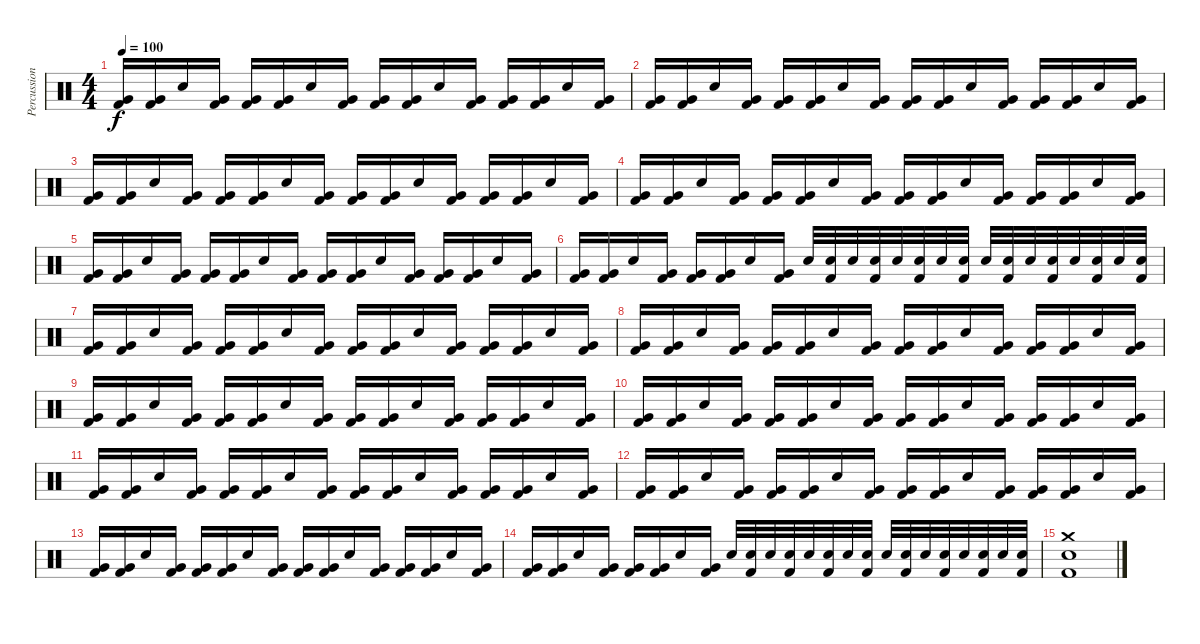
\track ("Percussion" "Percussion") {instrument percussion}
\staff {score}
\articulation defaults
\ts (4 4)
\tempo 100
\clef neutral
\ks c
("Very Low Tom (hit)" "Kick (hit) 2").16{dy f} ("Very Low Tom (hit)" "Kick (hit) 2").16 "Electric Snare (hit)".16 ("Very Low Tom (hit)" "Kick (hit) 2").16 ("Very Low Tom (hit)" "Kick (hit) 2").16 ("Very Low Tom (hit)" "Kick (hit) 2").16 "Electric Snare (hit)".16 ("Very Low Tom (hit)" "Kick (hit) 2").16 ("Very Low Tom (hit)" "Kick (hit) 2").16 ("Very Low Tom (hit)" "Kick (hit) 2").16 "Electric Snare (hit)".16 ("Very Low Tom (hit)" "Kick (hit) 2").16 ("Very Low Tom (hit)" "Kick (hit) 2").16 ("Very Low Tom (hit)" "Kick (hit) 2").16 "Electric Snare (hit)".16 ("Very Low Tom (hit)" "Kick (hit) 2").16 |
("Very Low Tom (hit)" "Kick (hit) 2").16 ("Very Low Tom (hit)" "Kick (hit) 2").16 "Electric Snare (hit)".16 ("Very Low Tom (hit)" "Kick (hit) 2").16 ("Very Low Tom (hit)" "Kick (hit) 2").16 ("Very Low Tom (hit)" "Kick (hit) 2").16 "Electric Snare (hit)".16 ("Very Low Tom (hit)" "Kick (hit) 2").16 ("Very Low Tom (hit)" "Kick (hit) 2").16 ("Very Low Tom (hit)" "Kick (hit) 2").16 "Electric Snare (hit)".16 ("Very Low Tom (hit)" "Kick (hit) 2").16 ("Very Low Tom (hit)" "Kick (hit) 2").16 ("Very Low Tom (hit)" "Kick (hit) 2").16 "Electric Snare (hit)".16 ("Very Low Tom (hit)" "Kick (hit) 2").16 |
("Very Low Tom (hit)" "Kick (hit) 2").16 ("Very Low Tom (hit)" "Kick (hit) 2").16 "Electric Snare (hit)".16 ("Very Low Tom (hit)" "Kick (hit) 2").16 ("Very Low Tom (hit)" "Kick (hit) 2").16 ("Very Low Tom (hit)" "Kick (hit) 2").16 "Electric Snare (hit)".16 ("Very Low Tom (hit)" "Kick (hit) 2").16 ("Very Low Tom (hit)" "Kick (hit) 2").16 ("Very Low Tom (hit)" "Kick (hit) 2").16 "Electric Snare (hit)".16 ("Very Low Tom (hit)" "Kick (hit) 2").16 ("Very Low Tom (hit)" "Kick (hit) 2").16 ("Very Low Tom (hit)" "Kick (hit) 2").16 "Electric Snare (hit)".16 ("Very Low Tom (hit)" "Kick (hit) 2").16 |
("Very Low Tom (hit)" "Kick (hit) 2").16 ("Very Low Tom (hit)" "Kick (hit) 2").16 "Electric Snare (hit)".16 ("Very Low Tom (hit)" "Kick (hit) 2").16 ("Very Low Tom (hit)" "Kick (hit) 2").16 ("Very Low Tom (hit)" "Kick (hit) 2").16 "Electric Snare (hit)".16 ("Very Low Tom (hit)" "Kick (hit) 2").16 ("Very Low Tom (hit)" "Kick (hit) 2").16 ("Very Low Tom (hit)" "Kick (hit) 2").16 "Electric Snare (hit)".16 ("Very Low Tom (hit)" "Kick (hit) 2").16 ("Very Low Tom (hit)" "Kick (hit) 2").16 ("Very Low Tom (hit)" "Kick (hit) 2").16 "Electric Snare (hit)".16 ("Very Low Tom (hit)" "Kick (hit) 2").16 |
("Very Low Tom (hit)" "Kick (hit) 2").16 ("Very Low Tom (hit)" "Kick (hit) 2").16 "Electric Snare (hit)".16 ("Very Low Tom (hit)" "Kick (hit) 2").16 ("Very Low Tom (hit)" "Kick (hit) 2").16 ("Very Low Tom (hit)" "Kick (hit) 2").16 "Electric Snare (hit)".16 ("Very Low Tom (hit)" "Kick (hit) 2").16 ("Very Low Tom (hit)" "Kick (hit) 2").16 ("Very Low Tom (hit)" "Kick (hit) 2").16 "Electric Snare (hit)".16 ("Very Low Tom (hit)" "Kick (hit) 2").16 ("Very Low Tom (hit)" "Kick (hit) 2").16 ("Very Low Tom (hit)" "Kick (hit) 2").16 "Electric Snare (hit)".16 ("Very Low Tom (hit)" "Kick (hit) 2").16 |
("Very Low Tom (hit)" "Kick (hit) 2").16 ("Very Low Tom (hit)" "Kick (hit) 2").16 "Electric Snare (hit)".16 ("Very Low Tom (hit)" "Kick (hit) 2").16 ("Very Low Tom (hit)" "Kick (hit) 2").16 ("Very Low Tom (hit)" "Kick (hit) 2").16 "Electric Snare (hit)".16 ("Very Low Tom (hit)" "Kick (hit) 2").16 "Electric Snare (hit)".32 ("Electric Snare (hit)" "Kick (hit) 2").32 "Electric Snare (hit)".32 ("Electric Snare (hit)" "Kick (hit) 2").32 "Electric Snare (hit)".32 ("Electric Snare (hit)" "Kick (hit) 2").32 "Electric Snare (hit)".32 ("Electric Snare (hit)" "Kick (hit) 2").32 "Electric Snare (hit)".32 ("Electric Snare (hit)" "Kick (hit) 2").32 "Electric Snare (hit)".32 ("Electric Snare (hit)" "Kick (hit) 2").32 "Electric Snare (hit)".32 ("Electric Snare (hit)" "Kick (hit) 2").32 "Electric Snare (hit)".32 ("Electric Snare (hit)" "Kick (hit) 2").32 |
("Very Low Tom (hit)" "Kick (hit) 2").16 ("Very Low Tom (hit)" "Kick (hit) 2").16 "Electric Snare (hit)".16 ("Very Low Tom (hit)" "Kick (hit) 2").16 ("Very Low Tom (hit)" "Kick (hit) 2").16 ("Very Low Tom (hit)" "Kick (hit) 2").16 "Electric Snare (hit)".16 ("Very Low Tom (hit)" "Kick (hit) 2").16 ("Very Low Tom (hit)" "Kick (hit) 2").16 ("Very Low Tom (hit)" "Kick (hit) 2").16 "Electric Snare (hit)".16 ("Very Low Tom (hit)" "Kick (hit) 2").16 ("Very Low Tom (hit)" "Kick (hit) 2").16 ("Very Low Tom (hit)" "Kick (hit) 2").16 "Electric Snare (hit)".16 ("Very Low Tom (hit)" "Kick (hit) 2").16 |
("Very Low Tom (hit)" "Kick (hit) 2").16 ("Very Low Tom (hit)" "Kick (hit) 2").16 "Electric Snare (hit)".16 ("Very Low Tom (hit)" "Kick (hit) 2").16 ("Very Low Tom (hit)" "Kick (hit) 2").16 ("Very Low Tom (hit)" "Kick (hit) 2").16 "Electric Snare (hit)".16 ("Very Low Tom (hit)" "Kick (hit) 2").16 ("Very Low Tom (hit)" "Kick (hit) 2").16 ("Very Low Tom (hit)" "Kick (hit) 2").16 "Electric Snare (hit)".16 ("Very Low Tom (hit)" "Kick (hit) 2").16 ("Very Low Tom (hit)" "Kick (hit) 2").16 ("Very Low Tom (hit)" "Kick (hit) 2").16 "Electric Snare (hit)".16 ("Very Low Tom (hit)" "Kick (hit) 2").16 |
("Very Low Tom (hit)" "Kick (hit) 2").16 ("Very Low Tom (hit)" "Kick (hit) 2").16 "Electric Snare (hit)".16 ("Very Low Tom (hit)" "Kick (hit) 2").16 ("Very Low Tom (hit)" "Kick (hit) 2").16 ("Very Low Tom (hit)" "Kick (hit) 2").16 "Electric Snare (hit)".16 ("Very Low Tom (hit)" "Kick (hit) 2").16 ("Very Low Tom (hit)" "Kick (hit) 2").16 ("Very Low Tom (hit)" "Kick (hit) 2").16 "Electric Snare (hit)".16 ("Very Low Tom (hit)" "Kick (hit) 2").16 ("Very Low Tom (hit)" "Kick (hit) 2").16 ("Very Low Tom (hit)" "Kick (hit) 2").16 "Electric Snare (hit)".16 ("Very Low Tom (hit)" "Kick (hit) 2").16 |
("Very Low Tom (hit)" "Kick (hit) 2").16 ("Very Low Tom (hit)" "Kick (hit) 2").16 "Electric Snare (hit)".16 ("Very Low Tom (hit)" "Kick (hit) 2").16 ("Very Low Tom (hit)" "Kick (hit) 2").16 ("Very Low Tom (hit)" "Kick (hit) 2").16 "Electric Snare (hit)".16 ("Very Low Tom (hit)" "Kick (hit) 2").16 ("Very Low Tom (hit)" "Kick (hit) 2").16 ("Very Low Tom (hit)" "Kick (hit) 2").16 "Electric Snare (hit)".16 ("Very Low Tom (hit)" "Kick (hit) 2").16 ("Very Low Tom (hit)" "Kick (hit) 2").16 ("Very Low Tom (hit)" "Kick (hit) 2").16 "Electric Snare (hit)".16 ("Very Low Tom (hit)" "Kick (hit) 2").16 |
("Very Low Tom (hit)" "Kick (hit) 2").16 ("Very Low Tom (hit)" "Kick (hit) 2").16 "Electric Snare (hit)".16 ("Very Low Tom (hit)" "Kick (hit) 2").16 ("Very Low Tom (hit)" "Kick (hit) 2").16 ("Very Low Tom (hit)" "Kick (hit) 2").16 "Electric Snare (hit)".16 ("Very Low Tom (hit)" "Kick (hit) 2").16 ("Very Low Tom (hit)" "Kick (hit) 2").16 ("Very Low Tom (hit)" "Kick (hit) 2").16 "Electric Snare (hit)".16 ("Very Low Tom (hit)" "Kick (hit) 2").16 ("Very Low Tom (hit)" "Kick (hit) 2").16 ("Very Low Tom (hit)" "Kick (hit) 2").16 "Electric Snare (hit)".16 ("Very Low Tom (hit)" "Kick (hit) 2").16 |
("Very Low Tom (hit)" "Kick (hit) 2").16 ("Very Low Tom (hit)" "Kick (hit) 2").16 "Electric Snare (hit)".16 ("Very Low Tom (hit)" "Kick (hit) 2").16 ("Very Low Tom (hit)" "Kick (hit) 2").16 ("Very Low Tom (hit)" "Kick (hit) 2").16 "Electric Snare (hit)".16 ("Very Low Tom (hit)" "Kick (hit) 2").16 ("Very Low Tom (hit)" "Kick (hit) 2").16 ("Very Low Tom (hit)" "Kick (hit) 2").16 "Electric Snare (hit)".16 ("Very Low Tom (hit)" "Kick (hit) 2").16 ("Very Low Tom (hit)" "Kick (hit) 2").16 ("Very Low Tom (hit)" "Kick (hit) 2").16 "Electric Snare (hit)".16 ("Very Low Tom (hit)" "Kick (hit) 2").16 |
("Very Low Tom (hit)" "Kick (hit) 2").16 ("Very Low Tom (hit)" "Kick (hit) 2").16 "Electric Snare (hit)".16 ("Very Low Tom (hit)" "Kick (hit) 2").16 ("Very Low Tom (hit)" "Kick (hit) 2").16 ("Very Low Tom (hit)" "Kick (hit) 2").16 "Electric Snare (hit)".16 ("Very Low Tom (hit)" "Kick (hit) 2").16 ("Very Low Tom (hit)" "Kick (hit) 2").16 ("Very Low Tom (hit)" "Kick (hit) 2").16 "Electric Snare (hit)".16 ("Very Low Tom (hit)" "Kick (hit) 2").16 ("Very Low Tom (hit)" "Kick (hit) 2").16 ("Very Low Tom (hit)" "Kick (hit) 2").16 "Electric Snare (hit)".16 ("Very Low Tom (hit)" "Kick (hit) 2").16 |
("Very Low Tom (hit)" "Kick (hit) 2").16 ("Very Low Tom (hit)" "Kick (hit) 2").16 "Electric Snare (hit)".16 ("Very Low Tom (hit)" "Kick (hit) 2").16 ("Very Low Tom (hit)" "Kick (hit) 2").16 ("Very Low Tom (hit)" "Kick (hit) 2").16 "Electric Snare (hit)".16 ("Very Low Tom (hit)" "Kick (hit) 2").16 "Electric Snare (hit)".32 ("Electric Snare (hit)" "Kick (hit) 2").32 "Electric Snare (hit)".32 ("Electric Snare (hit)" "Kick (hit) 2").32 "Electric Snare (hit)".32 ("Electric Snare (hit)" "Kick (hit) 2").32 "Electric Snare (hit)".32 ("Electric Snare (hit)" "Kick (hit) 2").32 "Electric Snare (hit)".32 ("Electric Snare (hit)" "Kick (hit) 2").32 "Electric Snare (hit)".32 ("Electric Snare (hit)" "Kick (hit) 2").32 "Electric Snare (hit)".32 ("Electric Snare (hit)" "Kick (hit) 2").32 "Electric Snare (hit)".32 ("Electric Snare (hit)" "Kick (hit) 2").32 |
("Crash medium (hit)" "Electric Snare (hit)" "Kick (hit) 2").1
